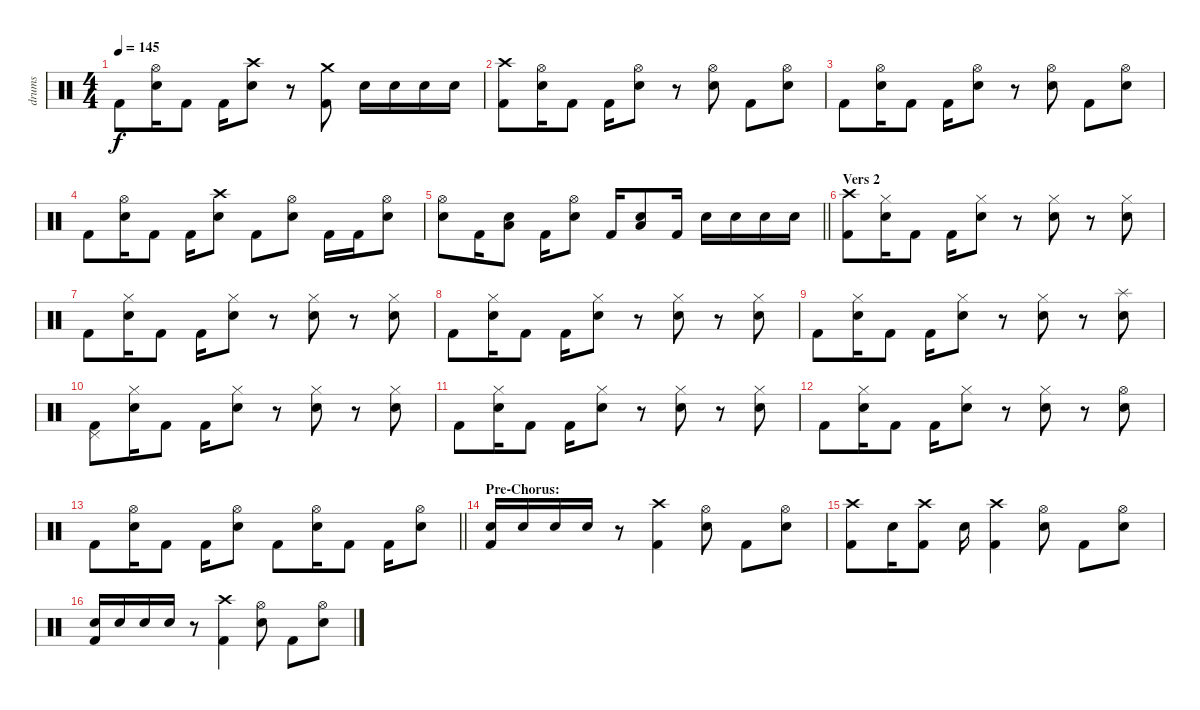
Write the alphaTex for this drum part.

\track ("drums" "drums") {instrument percussion}
\staff {score}
\articulation defaults
\ts (4 4)
\tempo 145
\clef neutral
\ks c "Kick (hit) 2".8{dy f}
("Hi-Hat (open)" "Electric Snare (hit)").16 "Kick (hit) 2".8 "Kick (hit) 2".16 ("Crash high (hit)" "Electric Snare (hit)").8 r.8 ("Crash medium (hit)" "Kick (hit) 2").8 "Electric Snare (hit)".16 "Electric Snare (hit)".16 "Electric Snare (hit)".16 "Electric Snare (hit)".16 |
("Crash high (hit)" "Kick (hit) 2").8 ("Hi-Hat (open)" "Electric Snare (hit)").16 "Kick (hit) 2".8 "Kick (hit) 2".16 ("Hi-Hat (open)" "Electric Snare (hit)").8 r.8 ("Hi-Hat (open)" "Electric Snare (hit)").8 "Kick (hit) 2".8 ("Hi-Hat (open)" "Electric Snare (hit)").8 |
"Kick (hit) 2".8 ("Hi-Hat (open)" "Electric Snare (hit)").16 "Kick (hit) 2".8 "Kick (hit) 2".16 ("Hi-Hat (open)" "Electric Snare (hit)").8 r.8 ("Hi-Hat (open)" "Electric Snare (hit)").8 "Kick (hit) 2".8 ("Hi-Hat (open)" "Electric Snare (hit)").8 |
"Kick (hit) 2".8 ("Hi-Hat (open)" "Electric Snare (hit)").16 "Kick (hit) 2".8 "Kick (hit) 2".16 ("Crash high (hit)" "Electric Snare (hit)").8 "Kick (hit) 2".8 ("Hi-Hat (open)" "Electric Snare (hit)").8 "Kick (hit) 2".16 "Kick (hit) 2".16 ("Hi-Hat (open)" "Electric Snare (hit)").8 |
\barLineRight lightlight
("Hi-Hat (open)" "Electric Snare (hit)").8 "Kick (hit) 2".16 ("Low Floor Tom (hit)" "Electric Snare (hit)").8 "Kick (hit) 2".16 ("Hi-Hat (open)" "Electric Snare (hit)").8 "Kick (hit) 2".16 ("Low Floor Tom (hit)" "Electric Snare (hit)").8 "Kick (hit) 2".16 "Electric Snare (hit)".16 "Electric Snare (hit)".16 "Electric Snare (hit)".16 "Electric Snare (hit)".16 |
\section ("" "Vers 2")
("Crash high (hit)" "Kick (hit) 2").8 ("Hi-Hat (closed)" "Electric Snare (hit)").16 "Kick (hit) 2".8 "Kick (hit) 2".16 ("Hi-Hat (closed)" "Electric Snare (hit)").8 r.8 ("Hi-Hat (closed)" "Electric Snare (hit)").8 r.8 ("Hi-Hat (closed)" "Electric Snare (hit)").8 |
"Kick (hit) 2".8 ("Hi-Hat (closed)" "Electric Snare (hit)").16 "Kick (hit) 2".8 "Kick (hit) 2".16 ("Hi-Hat (closed)" "Electric Snare (hit)").8 r.8 ("Hi-Hat (closed)" "Electric Snare (hit)").8 r.8 ("Hi-Hat (closed)" "Electric Snare (hit)").8 |
"Kick (hit) 2".8 ("Hi-Hat (closed)" "Electric Snare (hit)").16 "Kick (hit) 2".8 "Kick (hit) 2".16 ("Hi-Hat (closed)" "Electric Snare (hit)").8 r.8 ("Hi-Hat (closed)" "Electric Snare (hit)").8 r.8 ("Hi-Hat (closed)" "Electric Snare (hit)").8 |
"Kick (hit) 2".8 ("Hi-Hat (closed)" "Electric Snare (hit)").16 "Kick (hit) 2".8 "Kick (hit) 2".16 ("Hi-Hat (closed)" "Electric Snare (hit)").8 r.8 ("Hi-Hat (closed)" "Electric Snare (hit)").8 r.8 ("Splash (hit)" "Electric Snare (hit)").8 |
("Pedal Hi-Hat (hit)" "Kick (hit) 2").8 ("Hi-Hat (closed)" "Electric Snare (hit)").16 "Kick (hit) 2".8 "Kick (hit) 2".16 ("Hi-Hat (closed)" "Electric Snare (hit)").8 r.8 ("Hi-Hat (closed)" "Electric Snare (hit)").8 r.8 ("Hi-Hat (closed)" "Electric Snare (hit)").8 |
"Kick (hit) 2".8 ("Hi-Hat (closed)" "Electric Snare (hit)").16 "Kick (hit) 2".8 "Kick (hit) 2".16 ("Hi-Hat (closed)" "Electric Snare (hit)").8 r.8 ("Hi-Hat (closed)" "Electric Snare (hit)").8 r.8 ("Hi-Hat (closed)" "Electric Snare (hit)").8 |
"Kick (hit) 2".8 ("Hi-Hat (closed)" "Electric Snare (hit)").16 "Kick (hit) 2".8 "Kick (hit) 2".16 ("Hi-Hat (closed)" "Electric Snare (hit)").8 r.8 ("Hi-Hat (closed)" "Electric Snare (hit)").8 r.8 ("Hi-Hat (open)" "Electric Snare (hit)").8 |
\barLineRight lightlight "Kick (hit) 2".8
("Hi-Hat (open)" "Electric Snare (hit)").16 "Kick (hit) 2".8 "Kick (hit) 2".16 ("Hi-Hat (open)" "Electric Snare (hit)").8 "Kick (hit) 2".8 ("Hi-Hat (open)" "Electric Snare (hit)").16 "Kick (hit) 2".8 "Kick (hit) 2".16 ("Hi-Hat (open)" "Electric Snare (hit)").8 |
\section ("" "Pre-Chorus:")
("Electric Snare (hit)" "Kick (hit) 2").16 "Electric Snare (hit)".16 "Electric Snare (hit)".16 "Electric Snare (hit)".16 r.8 ("Crash high (hit)" "Kick (hit) 2").4 ("Hi-Hat (open)" "Electric Snare (hit)").8 "Kick (hit) 2".8 ("Hi-Hat (open)" "Electric Snare (hit)").8 |
("Crash high (hit)" "Kick (hit) 2").8 "Electric Snare (hit)".16 ("Crash high (hit)" "Kick (hit) 2").8 "Electric Snare (hit)".16 ("Crash high (hit)" "Kick (hit) 2").4 ("Hi-Hat (open)" "Electric Snare (hit)").8 "Kick (hit) 2".8 ("Hi-Hat (open)" "Electric Snare (hit)").8 |
("Electric Snare (hit)" "Kick (hit) 2").16 "Electric Snare (hit)".16 "Electric Snare (hit)".16 "Electric Snare (hit)".16 r.8 ("Crash high (hit)" "Kick (hit) 2").4 ("Hi-Hat (open)" "Electric Snare (hit)").8 "Kick (hit) 2".8 ("Hi-Hat (open)" "Electric Snare (hit)").8
